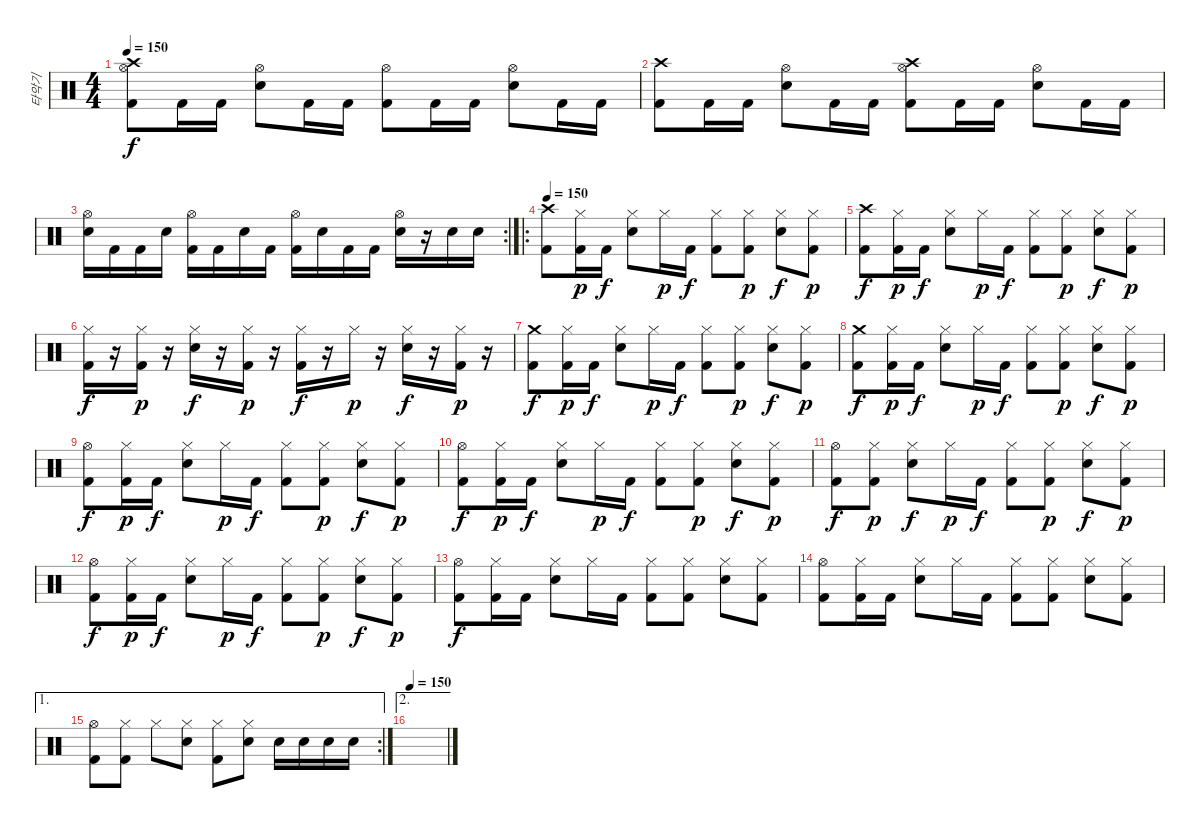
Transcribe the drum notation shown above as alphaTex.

\track ("타악기" "타악기") {instrument percussion}
\staff {score}
\articulation defaults
\ts (4 4)
\tempo 150
\clef neutral
\ks c
("Crash high (hit)" "Hi-Hat (open)" "Kick (hit) 2").8{dy f} "Kick (hit) 2".16 "Kick (hit) 2".16 ("Snare (hit) 2" "Hi-Hat (open)").8 "Kick (hit) 2".16 "Kick (hit) 2".16 ("Kick (hit) 2" "Hi-Hat (open)").8 "Kick (hit) 2".16 "Kick (hit) 2".16 ("Hi-Hat (open)" "Snare (hit) 2").8 "Kick (hit) 2".16 "Kick (hit) 2".16 |
("Crash high (hit)" "Kick (hit) 2").8 "Kick (hit) 2".16 "Kick (hit) 2".16 ("Snare (hit) 2" "Hi-Hat (open)").8 "Kick (hit) 2".16 "Kick (hit) 2".16 ("Crash high (hit)" "Kick (hit) 2" "Hi-Hat (open)").8 "Kick (hit) 2".16 "Kick (hit) 2".16 ("Hi-Hat (open)" "Snare (hit) 2").8 "Kick (hit) 2".16 "Kick (hit) 2".16 |
\rc 2
("Hi-Hat (open)" "Snare (hit) 2").16 "Kick (hit) 2".16 "Kick (hit) 2".16 "Snare (hit) 2".16 ("Hi-Hat (open)" "Kick (hit) 2").16 "Kick (hit) 2".16 "Snare (hit) 2".16 "Kick (hit) 2".16 ("Hi-Hat (open)" "Kick (hit) 2").16 "Snare (hit) 2".16 "Kick (hit) 2".16 "Kick (hit) 2".16 ("Hi-Hat (open)" "Snare (hit) 2").16 r.16 "Snare (hit) 2".16 "Snare (hit) 2".16 |
\ro
\tempo 150
("Crash high (hit)" "Kick (hit) 2").8 ("Hi-Hat (closed)" "Kick (hit) 2").16{dy p} "Kick (hit) 2".16{dy f} ("Hi-Hat (closed)" "Snare (hit) 2").8 "Hi-Hat (closed)".16{dy p} "Kick (hit) 2".16{dy f} ("Hi-Hat (closed)" "Kick (hit) 2").8 ("Hi-Hat (closed)" "Kick (hit) 2").8{dy p} ("Hi-Hat (closed)" "Snare (hit) 2").8{dy f} ("Hi-Hat (closed)" "Kick (hit) 2").8{dy p} |
("Crash high (hit)" "Kick (hit) 2").8{dy f} ("Hi-Hat (closed)" "Kick (hit) 2").16{dy p} "Kick (hit) 2".16{dy f} ("Hi-Hat (closed)" "Snare (hit) 2").8 "Hi-Hat (closed)".16{dy p} "Kick (hit) 2".16{dy f} ("Hi-Hat (closed)" "Kick (hit) 2").8 ("Hi-Hat (closed)" "Kick (hit) 2").8{dy p} ("Hi-Hat (closed)" "Snare (hit) 2").8{dy f} ("Hi-Hat (closed)" "Kick (hit) 2").8{dy p} |
("Hi-Hat (closed)" "Kick (hit) 2").16{dy f} r.16 ("Hi-Hat (closed)" "Kick (hit) 2").16{dy p} r.16 ("Hi-Hat (closed)" "Snare (hit) 2").16{dy f} r.16 ("Hi-Hat (closed)" "Kick (hit) 2").16{dy p} r.16 ("Hi-Hat (closed)" "Kick (hit) 2").16{dy f} r.16 "Hi-Hat (closed)".16{dy p} r.16 ("Hi-Hat (closed)" "Snare (hit) 2").16{dy f} r.16 ("Hi-Hat (closed)" "Kick (hit) 2").16{dy p} r.16 |
("Crash medium (hit)" "Kick (hit) 2").8{dy f} ("Hi-Hat (closed)" "Kick (hit) 2").16{dy p} "Kick (hit) 2".16{dy f} ("Hi-Hat (closed)" "Snare (hit) 2").8 "Hi-Hat (closed)".16{dy p} "Kick (hit) 2".16{dy f} ("Hi-Hat (closed)" "Kick (hit) 2").8 ("Hi-Hat (closed)" "Kick (hit) 2").8{dy p} ("Hi-Hat (closed)" "Snare (hit) 2").8{dy f} ("Hi-Hat (closed)" "Kick (hit) 2").8{dy p} |
("Crash medium (hit)" "Kick (hit) 2").8{dy f} ("Hi-Hat (closed)" "Kick (hit) 2").16{dy p} "Kick (hit) 2".16{dy f} ("Hi-Hat (closed)" "Snare (hit) 2").8 "Hi-Hat (closed)".16{dy p} "Kick (hit) 2".16{dy f} ("Hi-Hat (closed)" "Kick (hit) 2").8 ("Hi-Hat (closed)" "Kick (hit) 2").8{dy p} ("Hi-Hat (closed)" "Snare (hit) 2").8{dy f} ("Hi-Hat (closed)" "Kick (hit) 2").8{dy p} |
("Hi-Hat (open)" "Kick (hit) 2").8{dy f} ("Hi-Hat (closed)" "Kick (hit) 2").16{dy p} "Kick (hit) 2".16{dy f} ("Hi-Hat (closed)" "Snare (hit) 2").8 "Hi-Hat (closed)".16{dy p} "Kick (hit) 2".16{dy f} ("Hi-Hat (closed)" "Kick (hit) 2").8 ("Hi-Hat (closed)" "Kick (hit) 2").8{dy p} ("Hi-Hat (closed)" "Snare (hit) 2").8{dy f} ("Hi-Hat (closed)" "Kick (hit) 2").8{dy p} |
("Hi-Hat (open)" "Kick (hit) 2").8{dy f} ("Hi-Hat (closed)" "Kick (hit) 2").16{dy p} "Kick (hit) 2".16{dy f} ("Hi-Hat (closed)" "Snare (hit) 2").8 "Hi-Hat (closed)".16{dy p} "Kick (hit) 2".16{dy f} ("Hi-Hat (closed)" "Kick (hit) 2").8 ("Hi-Hat (closed)" "Kick (hit) 2").8{dy p} ("Hi-Hat (closed)" "Snare (hit) 2").8{dy f} ("Hi-Hat (closed)" "Kick (hit) 2").8{dy p} |
("Hi-Hat (open)" "Kick (hit) 2").8{dy f} ("Hi-Hat (closed)" "Kick (hit) 2").8{dy p} ("Hi-Hat (closed)" "Snare (hit) 2").8{dy f} "Hi-Hat (closed)".16{dy p} "Kick (hit) 2".16{dy f} ("Hi-Hat (closed)" "Kick (hit) 2").8 ("Hi-Hat (closed)" "Kick (hit) 2").8{dy p} ("Hi-Hat (closed)" "Snare (hit) 2").8{dy f} ("Hi-Hat (closed)" "Kick (hit) 2").8{dy p} |
("Hi-Hat (open)" "Kick (hit) 2").8{dy f} ("Hi-Hat (closed)" "Kick (hit) 2").16{dy p} "Kick (hit) 2".16{dy f} ("Hi-Hat (closed)" "Snare (hit) 2").8 "Hi-Hat (closed)".16{dy p} "Kick (hit) 2".16{dy f} ("Hi-Hat (closed)" "Kick (hit) 2").8 ("Hi-Hat (closed)" "Kick (hit) 2").8{dy p} ("Hi-Hat (closed)" "Snare (hit) 2").8{dy f} ("Hi-Hat (closed)" "Kick (hit) 2").8{dy p} |
("Hi-Hat (open)" "Kick (hit) 2").8{dy f} ("Hi-Hat (closed)" "Kick (hit) 2").16 "Kick (hit) 2".16 ("Hi-Hat (closed)" "Snare (hit) 2").8 "Hi-Hat (closed)".16 "Kick (hit) 2".16 ("Hi-Hat (closed)" "Kick (hit) 2").8 ("Hi-Hat (closed)" "Kick (hit) 2").8 ("Hi-Hat (closed)" "Snare (hit) 2").8 ("Hi-Hat (closed)" "Kick (hit) 2").8 |
("Hi-Hat (open)" "Kick (hit) 2").8 ("Hi-Hat (closed)" "Kick (hit) 2").16 "Kick (hit) 2".16 ("Hi-Hat (closed)" "Snare (hit) 2").8 "Hi-Hat (closed)".16 "Kick (hit) 2".16 ("Hi-Hat (closed)" "Kick (hit) 2").8 ("Hi-Hat (closed)" "Kick (hit) 2").8 ("Hi-Hat (closed)" "Snare (hit) 2").8 ("Hi-Hat (closed)" "Kick (hit) 2").8 |
\ae 1
\rc 2
("Hi-Hat (open)" "Kick (hit) 2").8 ("Hi-Hat (closed)" "Kick (hit) 2").8 "Hi-Hat (closed)".8 ("Hi-Hat (closed)" "Snare (hit) 2").8 ("Hi-Hat (closed)" "Kick (hit) 2").8 ("Hi-Hat (closed)" "Snare (hit) 2").8 "Snare (hit) 2".16 "Snare (hit) 2".16 "Snare (hit) 2".16 "Snare (hit) 2".16 |
\ae 2
\tempo 150
